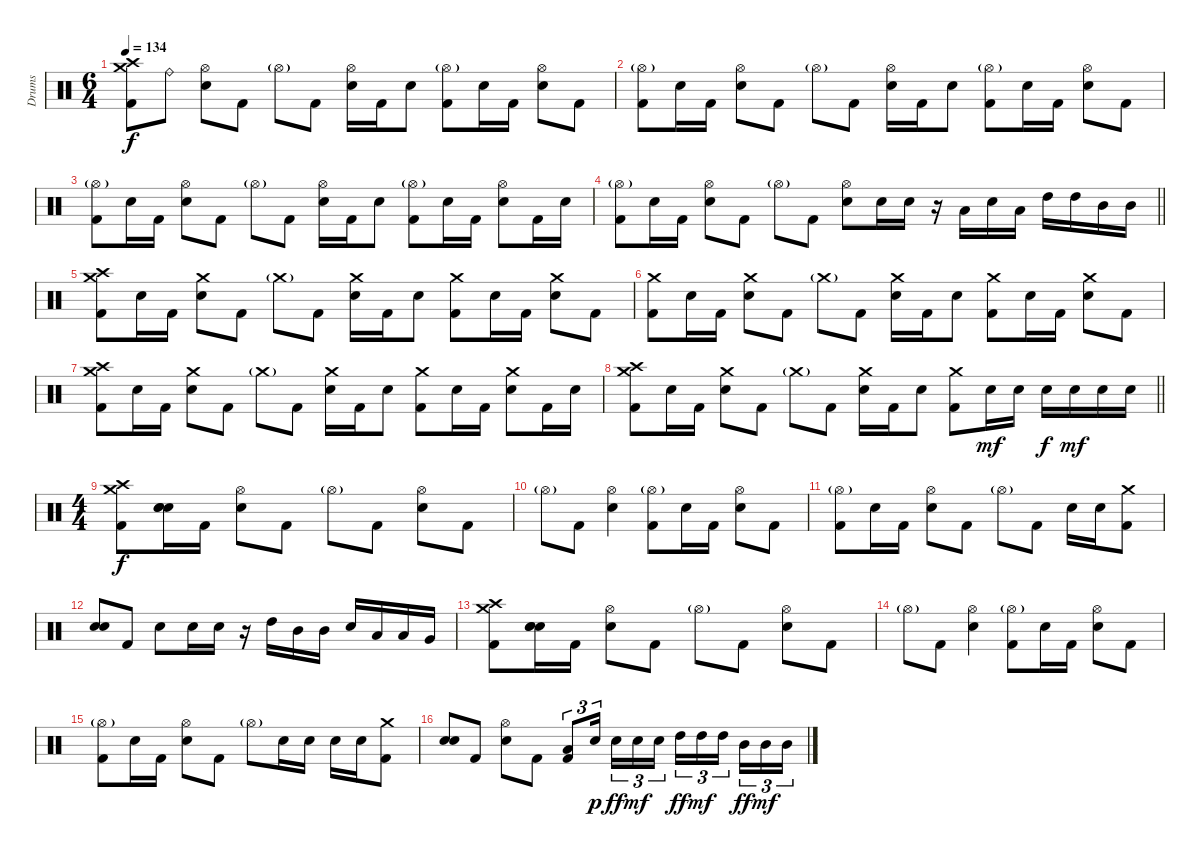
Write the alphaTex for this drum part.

\track ("Drums" "Drums") {instrument percussion}
\staff {score}
\articulation defaults
\ts (6 4)
\tempo 134
\clef neutral
\ks c
("Crash high (hit)" "Crash medium (hit)" "Kick (hit) 2").8{dy f} "Ride (bell)".8 ("Hi-Hat (open)" "Snare (hit) 2").8 "Kick (hit) 2".8 "Hi-Hat (open)"{g}.8 "Kick (hit) 2".8 ("Hi-Hat (open)" "Snare (hit) 2").16 "Kick (hit) 2".16 "Snare (hit)".8 ("Hi-Hat (open)"{g} "Kick (hit) 2").8 "Snare (hit)".16 "Kick (hit) 2".16 ("Hi-Hat (open)" "Snare (hit) 2").8 "Kick (hit) 2".8 |
("Hi-Hat (open)"{g} "Kick (hit) 2").8 "Snare (hit)".16 "Kick (hit) 2".16 ("Hi-Hat (open)" "Snare (hit) 2").8 "Kick (hit) 2".8 "Hi-Hat (open)"{g}.8 "Kick (hit) 2".8 ("Hi-Hat (open)" "Snare (hit) 2").16 "Kick (hit) 2".16 "Snare (hit)".8 ("Hi-Hat (open)"{g} "Kick (hit) 2").8 "Snare (hit)".16 "Kick (hit) 2".16 ("Hi-Hat (open)" "Snare (hit) 2").8 "Kick (hit) 2".8 |
("Hi-Hat (open)"{g} "Kick (hit) 2").8 "Snare (hit)".16 "Kick (hit) 2".16 ("Hi-Hat (open)" "Snare (hit) 2").8 "Kick (hit) 2".8 "Hi-Hat (open)"{g}.8 "Kick (hit) 2".8 ("Hi-Hat (open)" "Snare (hit) 2").16 "Kick (hit) 2".16 "Snare (hit)".8 ("Hi-Hat (open)"{g} "Kick (hit) 2").8 "Snare (hit)".16 "Kick (hit) 2".16 ("Hi-Hat (open)" "Snare (hit) 2").8 "Kick (hit) 2".16 "Snare (hit) 2".16 |
\barLineRight lightlight
("Hi-Hat (open)"{g} "Kick (hit) 2").8 "Snare (hit)".16 "Kick (hit) 2".16 ("Hi-Hat (open)" "Snare (hit) 2").8 "Kick (hit) 2".8 "Hi-Hat (open)"{g}.8 "Kick (hit) 2".8 ("Hi-Hat (open)" "Snare (hit) 2").8 "Snare (hit) 2".16 "Snare (hit) 2".16 r.16 "Low Tom (hit)".16 "Snare (hit) 2".16 "Low Tom (hit)".16 "High Tom (hit)".16 "High Tom (hit)".16 "Mid Tom (hit)".16 "Mid Tom (hit)".16 |
("Crash medium (hit)" "Crash high (hit)" "Kick (hit) 2").8 "Snare (hit)".16 "Kick (hit) 2".16 ("Crash medium (hit)" "Snare (hit) 2").8 "Kick (hit) 2".8 "Crash medium (hit)"{g}.8 "Kick (hit) 2".8 ("Crash medium (hit)" "Snare (hit) 2").16 "Kick (hit) 2".16 "Snare (hit)".8 ("Crash medium (hit)" "Kick (hit) 2").8 "Snare (hit)".16 "Kick (hit) 2".16 ("Crash medium (hit)" "Snare (hit) 2").8 "Kick (hit) 2".8 |
("Crash medium (hit)" "Kick (hit) 2").8 "Snare (hit)".16 "Kick (hit) 2".16 ("Crash medium (hit)" "Snare (hit) 2").8 "Kick (hit) 2".8 "Crash medium (hit)"{g}.8 "Kick (hit) 2".8 ("Crash medium (hit)" "Snare (hit) 2").16 "Kick (hit) 2".16 "Snare (hit)".8 ("Crash medium (hit)" "Kick (hit) 2").8 "Snare (hit)".16 "Kick (hit) 2".16 ("Crash medium (hit)" "Snare (hit) 2").8 "Kick (hit) 2".8 |
("Crash medium (hit)" "Crash high (hit)" "Kick (hit) 2").8 "Snare (hit)".16 "Kick (hit) 2".16 ("Crash medium (hit)" "Snare (hit) 2").8 "Kick (hit) 2".8 "Crash medium (hit)"{g}.8 "Kick (hit) 2".8 ("Crash medium (hit)" "Snare (hit) 2").16 "Kick (hit) 2".16 "Snare (hit)".8 ("Crash medium (hit)" "Kick (hit) 2").8 "Snare (hit)".16 "Kick (hit) 2".16 ("Crash medium (hit)" "Snare (hit) 2").8 "Kick (hit) 2".16 "Snare (hit) 2".16 |
\barLineRight lightlight
("Crash medium (hit)" "Crash high (hit)" "Kick (hit) 2").8 "Snare (hit)".16 "Kick (hit) 2".16 ("Crash medium (hit)" "Snare (hit) 2").8 "Kick (hit) 2".8 "Crash medium (hit)"{g}.8 "Kick (hit) 2".8 ("Crash medium (hit)" "Snare (hit) 2").16 "Kick (hit) 2".16 "Snare (hit)".8 ("Crash medium (hit)" "Kick (hit) 2").8 "Snare (hit) 2".16{dy mf} "Snare (hit) 2".16 "Snare (hit) 2".16{dy f} "Snare (hit) 2".16{dy mf} "Snare (hit) 2".16 "Snare (hit) 2".16 |
\ts (4 4)
("Crash high (hit)" "Crash medium (hit)" "Kick (hit) 2").8{dy f} ("Snare (hit)" "Snare (hit)" "Snare (hit)").16 "Kick (hit) 2".16 ("Hi-Hat (open)" "Snare (hit) 2").8 "Kick (hit) 2".8 "Hi-Hat (open)"{g}.8 "Kick (hit) 2".8 ("Hi-Hat (open)" "Snare (hit) 2").8 "Kick (hit) 2".8 |
"Hi-Hat (open)"{g}.8 "Kick (hit) 2".8 ("Hi-Hat (open)" "Snare (hit) 2").4 ("Hi-Hat (open)"{g} "Kick (hit) 2").8 "Snare (hit)".16 "Kick (hit) 2".16 ("Hi-Hat (open)" "Snare (hit) 2").8 "Kick (hit) 2".8 |
("Hi-Hat (open)"{g} "Kick (hit) 2").8 "Snare (hit)".16 "Kick (hit) 2".16 ("Hi-Hat (open)" "Snare (hit) 2").8 "Kick (hit) 2".8 "Hi-Hat (open)"{g}.8 "Kick (hit) 2".8 "Snare (hit) 2".16 "Snare (hit) 2".16 ("Crash medium (hit)" "Kick (hit) 2").8 |
("Snare (hit)" "Snare (hit)").8 "Kick (hit) 2".8 "Snare (hit) 2".8 "Snare (hit) 2".16 "Snare (hit) 2".16 r.16 "High Tom (hit)".16 "Mid Tom (hit)".16 "Mid Tom (hit)".16 "Snare (hit) 2".16 "Low Tom (hit)".16 "Low Tom (hit)".16 "Very Low Tom (hit)".16 |
("Crash high (hit)" "Crash medium (hit)" "Kick (hit) 2").8 ("Snare (hit)" "Snare (hit)" "Snare (hit)").16 "Kick (hit) 2".16 ("Hi-Hat (open)" "Snare (hit) 2").8 "Kick (hit) 2".8 "Hi-Hat (open)"{g}.8 "Kick (hit) 2".8 ("Hi-Hat (open)" "Snare (hit) 2").8 "Kick (hit) 2".8 |
"Hi-Hat (open)"{g}.8 "Kick (hit) 2".8 ("Hi-Hat (open)" "Snare (hit) 2").4 ("Hi-Hat (open)"{g} "Kick (hit) 2").8 "Snare (hit)".16 "Kick (hit) 2".16 ("Hi-Hat (open)" "Snare (hit) 2").8 "Kick (hit) 2".8 |
("Hi-Hat (open)"{g} "Kick (hit) 2").8 "Snare (hit)".16 "Kick (hit) 2".16 ("Hi-Hat (open)" "Snare (hit) 2").8 "Kick (hit) 2".8 "Hi-Hat (open)"{g}.8 "Snare (hit) 2".16 "Snare (hit) 2".16 "Snare (hit) 2".16 "Snare (hit) 2".16 ("Crash medium (hit)" "Kick (hit) 2").8 |
("Snare (hit)" "Snare (hit)").8 "Kick (hit) 2".8 ("Hi-Hat (open)" "Snare (hit) 2").8 "Kick (hit) 2".8 ("Low Tom (hit)" "Kick (hit) 2").8{tu (3 2)} "Snare (hit) 2".16{tu (3 2) dy p} "Snare (hit) 2".16{tu (3 2) dy ff} "Snare (hit) 2".16{tu (3 2) dy mf} "Snare (hit) 2".16{tu (3 2)} "High Tom (hit)".16{tu (3 2) dy ff} "High Tom (hit)".16{tu (3 2) dy mf} "High Tom (hit)".16{tu (3 2)} "Mid Tom (hit)".16{tu (3 2) dy ff} "Mid Tom (hit)".16{tu (3 2) dy mf} "Mid Tom (hit)".16{tu (3 2)}
